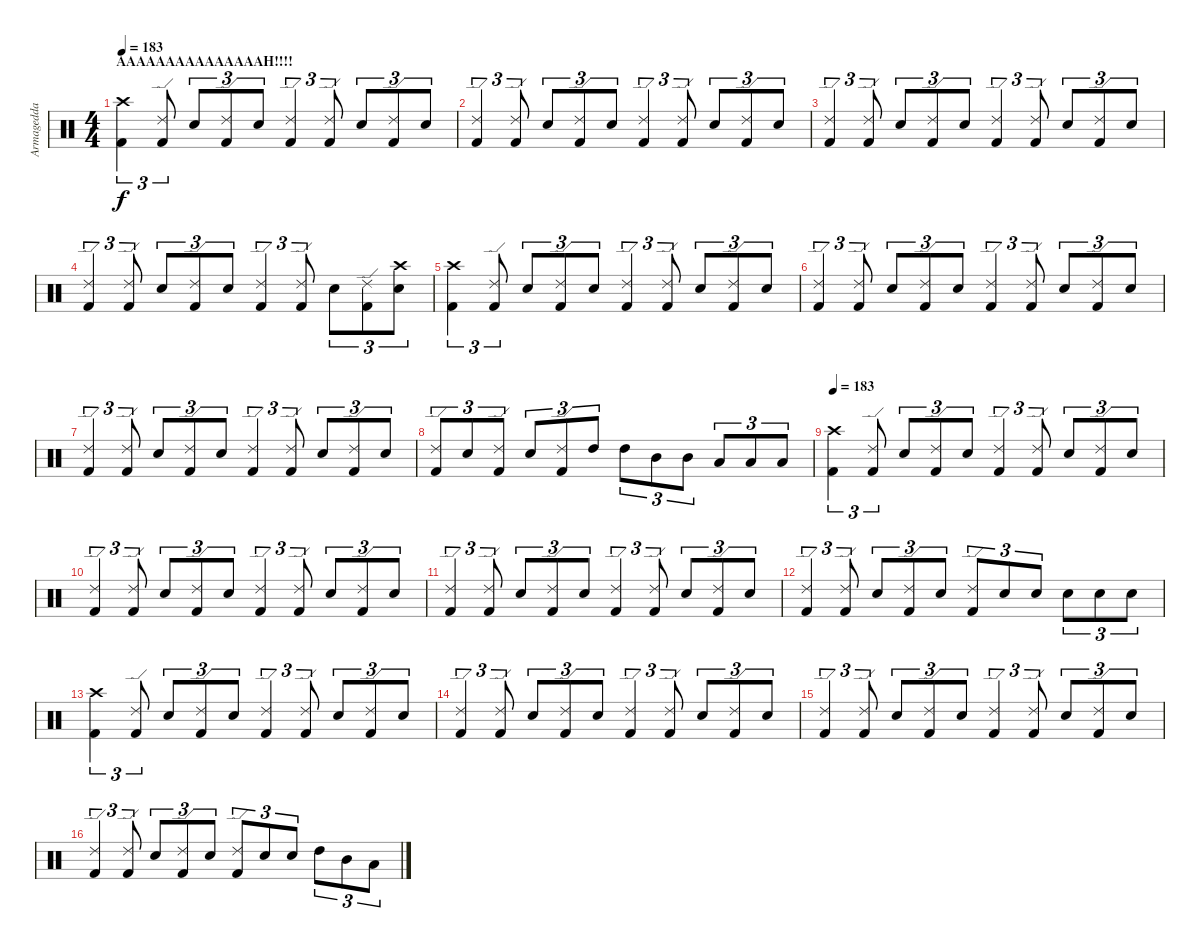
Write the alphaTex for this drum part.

\track ("Armagedda" "Armagedda") {instrument percussion}
\staff {score}
\articulation defaults
\ts (4 4)
\section ("" "AAAAAAAAAAAAAAAH!!!!")
\tempo 183
\clef neutral
\ks c
("Crash high (hit)" "Kick (hit) 2").4{tu (3 2) dy f} ("Ride (edge) 2" "Kick (hit) 2").8{tu (3 2)} "Electric Snare (hit)".8{tu (3 2)} ("Ride (edge) 2" "Kick (hit) 2").8{tu (3 2)} "Electric Snare (hit)".8{tu (3 2)} ("Ride (edge) 2" "Kick (hit) 2").4{tu (3 2)} ("Ride (edge) 2" "Kick (hit) 2").8{tu (3 2)} "Electric Snare (hit)".8{tu (3 2)} ("Ride (edge) 2" "Kick (hit) 2").8{tu (3 2)} "Electric Snare (hit)".8{tu (3 2)} |
("Ride (edge) 2" "Kick (hit) 2").4{tu (3 2)} ("Ride (edge) 2" "Kick (hit) 2").8{tu (3 2)} "Electric Snare (hit)".8{tu (3 2)} ("Ride (edge) 2" "Kick (hit) 2").8{tu (3 2)} "Electric Snare (hit)".8{tu (3 2)} ("Ride (edge) 2" "Kick (hit) 2").4{tu (3 2)} ("Ride (edge) 2" "Kick (hit) 2").8{tu (3 2)} "Electric Snare (hit)".8{tu (3 2)} ("Ride (edge) 2" "Kick (hit) 2").8{tu (3 2)} "Electric Snare (hit)".8{tu (3 2)} |
("Ride (edge) 2" "Kick (hit) 2").4{tu (3 2)} ("Ride (edge) 2" "Kick (hit) 2").8{tu (3 2)} "Electric Snare (hit)".8{tu (3 2)} ("Ride (edge) 2" "Kick (hit) 2").8{tu (3 2)} "Electric Snare (hit)".8{tu (3 2)} ("Ride (edge) 2" "Kick (hit) 2").4{tu (3 2)} ("Ride (edge) 2" "Kick (hit) 2").8{tu (3 2)} "Electric Snare (hit)".8{tu (3 2)} ("Ride (edge) 2" "Kick (hit) 2").8{tu (3 2)} "Electric Snare (hit)".8{tu (3 2)} |
("Ride (edge) 2" "Kick (hit) 2").4{tu (3 2)} ("Ride (edge) 2" "Kick (hit) 2").8{tu (3 2)} "Electric Snare (hit)".8{tu (3 2)} ("Ride (edge) 2" "Kick (hit) 2").8{tu (3 2)} "Electric Snare (hit)".8{tu (3 2)} ("Ride (edge) 2" "Kick (hit) 2").4{tu (3 2)} ("Ride (edge) 2" "Kick (hit) 2").8{tu (3 2)} "Electric Snare (hit)".8{tu (3 2)} ("Ride (edge) 2" "Kick (hit) 2").8{tu (3 2)} ("Crash high (hit)" "Electric Snare (hit)").8{tu (3 2)} |
("Crash high (hit)" "Kick (hit) 2").4{tu (3 2)} ("Ride (edge) 2" "Kick (hit) 2").8{tu (3 2)} "Electric Snare (hit)".8{tu (3 2)} ("Ride (edge) 2" "Kick (hit) 2").8{tu (3 2)} "Electric Snare (hit)".8{tu (3 2)} ("Ride (edge) 2" "Kick (hit) 2").4{tu (3 2)} ("Ride (edge) 2" "Kick (hit) 2").8{tu (3 2)} "Electric Snare (hit)".8{tu (3 2)} ("Ride (edge) 2" "Kick (hit) 2").8{tu (3 2)} "Electric Snare (hit)".8{tu (3 2)} |
("Ride (edge) 2" "Kick (hit) 2").4{tu (3 2)} ("Ride (edge) 2" "Kick (hit) 2").8{tu (3 2)} "Electric Snare (hit)".8{tu (3 2)} ("Ride (edge) 2" "Kick (hit) 2").8{tu (3 2)} "Electric Snare (hit)".8{tu (3 2)} ("Ride (edge) 2" "Kick (hit) 2").4{tu (3 2)} ("Ride (edge) 2" "Kick (hit) 2").8{tu (3 2)} "Electric Snare (hit)".8{tu (3 2)} ("Ride (edge) 2" "Kick (hit) 2").8{tu (3 2)} "Electric Snare (hit)".8{tu (3 2)} |
("Ride (edge) 2" "Kick (hit) 2").4{tu (3 2)} ("Ride (edge) 2" "Kick (hit) 2").8{tu (3 2)} "Electric Snare (hit)".8{tu (3 2)} ("Ride (edge) 2" "Kick (hit) 2").8{tu (3 2)} "Electric Snare (hit)".8{tu (3 2)} ("Ride (edge) 2" "Kick (hit) 2").4{tu (3 2)} ("Ride (edge) 2" "Kick (hit) 2").8{tu (3 2)} "Electric Snare (hit)".8{tu (3 2)} ("Ride (edge) 2" "Kick (hit) 2").8{tu (3 2)} "Electric Snare (hit)".8{tu (3 2)} |
("Ride (edge) 2" "Kick (hit) 2").8{tu (3 2)} "Electric Snare (hit)".8{tu (3 2)} ("Ride (edge) 2" "Kick (hit) 2").8{tu (3 2)} "Electric Snare (hit)".8{tu (3 2)} ("Ride (edge) 2" "Kick (hit) 2").8{tu (3 2)} "High Tom (hit)".8{tu (3 2)} "High Tom (hit)".8{tu (3 2)} "Mid Tom (hit)".8{tu (3 2)} "Mid Tom (hit)".8{tu (3 2)} "Low Tom (hit)".8{tu (3 2)} "Low Tom (hit)".8{tu (3 2)} "Low Floor Tom (hit)".8{tu (3 2)} |
\tempo 183
("Crash high (hit)" "Kick (hit) 2").4{tu (3 2)} ("Ride (edge) 2" "Kick (hit) 2").8{tu (3 2)} "Electric Snare (hit)".8{tu (3 2)} ("Ride (edge) 2" "Kick (hit) 2").8{tu (3 2)} "Electric Snare (hit)".8{tu (3 2)} ("Ride (edge) 2" "Kick (hit) 2").4{tu (3 2)} ("Ride (edge) 2" "Kick (hit) 2").8{tu (3 2)} "Electric Snare (hit)".8{tu (3 2)} ("Ride (edge) 2" "Kick (hit) 2").8{tu (3 2)} "Electric Snare (hit)".8{tu (3 2)} |
("Ride (edge) 2" "Kick (hit) 2").4{tu (3 2)} ("Ride (edge) 2" "Kick (hit) 2").8{tu (3 2)} "Electric Snare (hit)".8{tu (3 2)} ("Ride (edge) 2" "Kick (hit) 2").8{tu (3 2)} "Electric Snare (hit)".8{tu (3 2)} ("Ride (edge) 2" "Kick (hit) 2").4{tu (3 2)} ("Ride (edge) 2" "Kick (hit) 2").8{tu (3 2)} "Electric Snare (hit)".8{tu (3 2)} ("Ride (edge) 2" "Kick (hit) 2").8{tu (3 2)} "Electric Snare (hit)".8{tu (3 2)} |
("Ride (edge) 2" "Kick (hit) 2").4{tu (3 2)} ("Ride (edge) 2" "Kick (hit) 2").8{tu (3 2)} "Electric Snare (hit)".8{tu (3 2)} ("Ride (edge) 2" "Kick (hit) 2").8{tu (3 2)} "Electric Snare (hit)".8{tu (3 2)} ("Ride (edge) 2" "Kick (hit) 2").4{tu (3 2)} ("Ride (edge) 2" "Kick (hit) 2").8{tu (3 2)} "Electric Snare (hit)".8{tu (3 2)} ("Ride (edge) 2" "Kick (hit) 2").8{tu (3 2)} "Electric Snare (hit)".8{tu (3 2)} |
("Ride (edge) 2" "Kick (hit) 2").4{tu (3 2)} ("Ride (edge) 2" "Kick (hit) 2").8{tu (3 2)} "Electric Snare (hit)".8{tu (3 2)} ("Ride (edge) 2" "Kick (hit) 2").8{tu (3 2)} "Electric Snare (hit)".8{tu (3 2)} ("Ride (edge) 2" "Kick (hit) 2").8{tu (3 2)} "Electric Snare (hit)".8{tu (3 2)} "Electric Snare (hit)".8{tu (3 2)} "Electric Snare (hit)".8{tu (3 2)} "Electric Snare (hit)".8{tu (3 2)} "Electric Snare (hit)".8{tu (3 2)} |
("Crash high (hit)" "Kick (hit) 2").4{tu (3 2)} ("Ride (edge) 2" "Kick (hit) 2").8{tu (3 2)} "Electric Snare (hit)".8{tu (3 2)} ("Ride (edge) 2" "Kick (hit) 2").8{tu (3 2)} "Electric Snare (hit)".8{tu (3 2)} ("Ride (edge) 2" "Kick (hit) 2").4{tu (3 2)} ("Ride (edge) 2" "Kick (hit) 2").8{tu (3 2)} "Electric Snare (hit)".8{tu (3 2)} ("Ride (edge) 2" "Kick (hit) 2").8{tu (3 2)} "Electric Snare (hit)".8{tu (3 2)} |
("Ride (edge) 2" "Kick (hit) 2").4{tu (3 2)} ("Ride (edge) 2" "Kick (hit) 2").8{tu (3 2)} "Electric Snare (hit)".8{tu (3 2)} ("Ride (edge) 2" "Kick (hit) 2").8{tu (3 2)} "Electric Snare (hit)".8{tu (3 2)} ("Ride (edge) 2" "Kick (hit) 2").4{tu (3 2)} ("Ride (edge) 2" "Kick (hit) 2").8{tu (3 2)} "Electric Snare (hit)".8{tu (3 2)} ("Ride (edge) 2" "Kick (hit) 2").8{tu (3 2)} "Electric Snare (hit)".8{tu (3 2)} |
("Ride (edge) 2" "Kick (hit) 2").4{tu (3 2)} ("Ride (edge) 2" "Kick (hit) 2").8{tu (3 2)} "Electric Snare (hit)".8{tu (3 2)} ("Ride (edge) 2" "Kick (hit) 2").8{tu (3 2)} "Electric Snare (hit)".8{tu (3 2)} ("Ride (edge) 2" "Kick (hit) 2").4{tu (3 2)} ("Ride (edge) 2" "Kick (hit) 2").8{tu (3 2)} "Electric Snare (hit)".8{tu (3 2)} ("Ride (edge) 2" "Kick (hit) 2").8{tu (3 2)} "Electric Snare (hit)".8{tu (3 2)} |
("Ride (edge) 2" "Kick (hit) 2").4{tu (3 2)} ("Ride (edge) 2" "Kick (hit) 2").8{tu (3 2)} "Electric Snare (hit)".8{tu (3 2)} ("Ride (edge) 2" "Kick (hit) 2").8{tu (3 2)} "Electric Snare (hit)".8{tu (3 2)} ("Ride (edge) 2" "Kick (hit) 2").8{tu (3 2)} "Electric Snare (hit)".8{tu (3 2)} "Electric Snare (hit)".8{tu (3 2)} "High Tom (hit)".8{tu (3 2)} "Mid Tom (hit)".8{tu (3 2)} "Low Tom (hit)".8{tu (3 2)}
